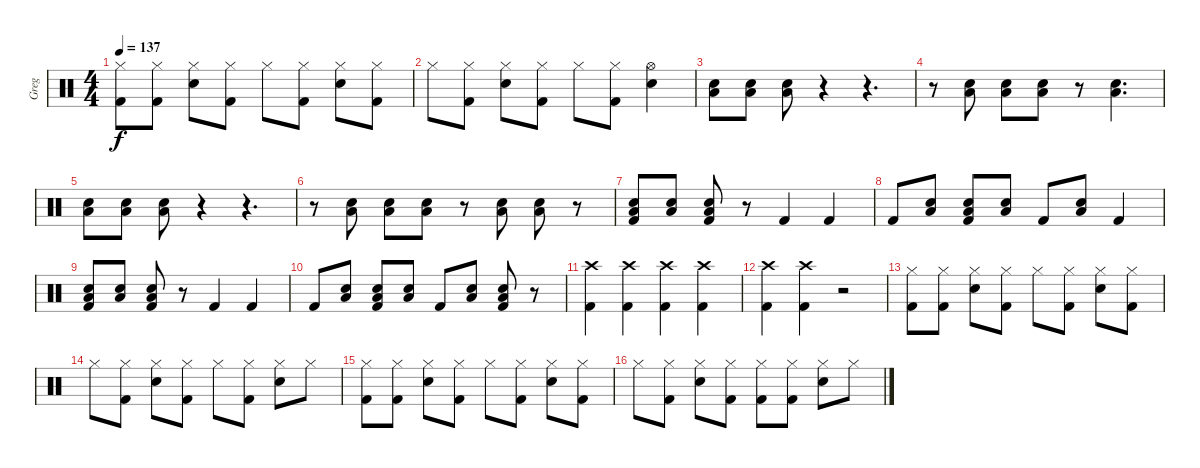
\track ("Greg" "Greg") {instrument percussion}
\staff {score}
\articulation defaults
\ts (4 4)
\tempo 137
\clef neutral
\ks c
("Hi-Hat (closed)" "Kick (hit) 2").8{dy f} ("Hi-Hat (closed)" "Kick (hit) 2").8 ("Hi-Hat (closed)" "Electric Snare (hit)").8 ("Hi-Hat (closed)" "Kick (hit) 2").8 "Hi-Hat (closed)".8 ("Hi-Hat (closed)" "Kick (hit) 2").8 ("Hi-Hat (closed)" "Electric Snare (hit)").8 ("Hi-Hat (closed)" "Kick (hit) 2").8 |
"Hi-Hat (closed)".8 ("Hi-Hat (closed)" "Kick (hit) 2").8 ("Hi-Hat (closed)" "Electric Snare (hit)").8 ("Hi-Hat (closed)" "Kick (hit) 2").8 "Hi-Hat (closed)".8 ("Hi-Hat (closed)" "Kick (hit) 2").8 ("Hi-Hat (open)" "Electric Snare (hit)").4 |
("Electric Snare (hit)" "Low Floor Tom (hit)").8 ("Electric Snare (hit)" "Low Floor Tom (hit)").8 ("Electric Snare (hit)" "Low Floor Tom (hit)").8 r.4 r.4{d} |
r.8 ("Electric Snare (hit)" "Low Floor Tom (hit)").8 ("Electric Snare (hit)" "Low Floor Tom (hit)").8 ("Electric Snare (hit)" "Low Floor Tom (hit)").8 r.8 ("Electric Snare (hit)" "Low Floor Tom (hit)").4{d} |
("Electric Snare (hit)" "Low Floor Tom (hit)").8 ("Electric Snare (hit)" "Low Floor Tom (hit)").8 ("Electric Snare (hit)" "Low Floor Tom (hit)").8 r.4 r.4{d} |
r.8 ("Electric Snare (hit)" "Low Floor Tom (hit)").8 ("Electric Snare (hit)" "Low Floor Tom (hit)").8 ("Electric Snare (hit)" "Low Floor Tom (hit)").8 r.8 ("Electric Snare (hit)" "Low Floor Tom (hit)").8 ("Electric Snare (hit)" "Low Floor Tom (hit)").8 r.8 |
("Electric Snare (hit)" "Low Floor Tom (hit)" "Kick (hit) 2").8 ("Electric Snare (hit)" "Low Floor Tom (hit)").8 ("Electric Snare (hit)" "Low Floor Tom (hit)" "Kick (hit) 2").8 r.8 "Kick (hit) 2".4 "Kick (hit) 2".4 |
"Kick (hit) 2".8 ("Electric Snare (hit)" "Low Floor Tom (hit)").8 ("Electric Snare (hit)" "Low Floor Tom (hit)" "Kick (hit) 2").8 ("Electric Snare (hit)" "Low Floor Tom (hit)").8 "Kick (hit) 2".8 ("Electric Snare (hit)" "Low Floor Tom (hit)").8 "Kick (hit) 2".4 |
("Electric Snare (hit)" "Low Floor Tom (hit)" "Kick (hit) 2").8 ("Electric Snare (hit)" "Low Floor Tom (hit)").8 ("Electric Snare (hit)" "Low Floor Tom (hit)" "Kick (hit) 2").8 r.8 "Kick (hit) 2".4 "Kick (hit) 2".4 |
"Kick (hit) 2".8 ("Electric Snare (hit)" "Low Floor Tom (hit)").8 ("Electric Snare (hit)" "Low Floor Tom (hit)" "Kick (hit) 2").8 ("Electric Snare (hit)" "Low Floor Tom (hit)").8 "Kick (hit) 2".8 ("Electric Snare (hit)" "Low Floor Tom (hit)").8 ("Electric Snare (hit)" "Low Floor Tom (hit)" "Kick (hit) 2").8 r.8 |
("Crash high (hit)" "Kick (hit) 2").4 ("Crash high (hit)" "Kick (hit) 2").4 ("Crash high (hit)" "Kick (hit) 2").4 ("Crash high (hit)" "Kick (hit) 2").4 |
("Crash high (hit)" "Kick (hit) 2").4 ("Crash high (hit)" "Kick (hit) 2").4 r.2 |
("Hi-Hat (closed)" "Kick (hit) 2").8 ("Hi-Hat (closed)" "Kick (hit) 2").8 ("Hi-Hat (closed)" "Electric Snare (hit)").8 ("Hi-Hat (closed)" "Kick (hit) 2").8 "Hi-Hat (closed)".8 ("Hi-Hat (closed)" "Kick (hit) 2").8 ("Hi-Hat (closed)" "Electric Snare (hit)").8 ("Hi-Hat (closed)" "Kick (hit) 2").8 |
"Hi-Hat (closed)".8 ("Hi-Hat (closed)" "Kick (hit) 2").8 ("Hi-Hat (closed)" "Electric Snare (hit)").8 ("Hi-Hat (closed)" "Kick (hit) 2").8 "Hi-Hat (closed)".8 ("Hi-Hat (closed)" "Kick (hit) 2").8 ("Hi-Hat (closed)" "Electric Snare (hit)").8 "Hi-Hat (closed)".8 |
("Hi-Hat (closed)" "Kick (hit) 2").8 ("Hi-Hat (closed)" "Kick (hit) 2").8 ("Hi-Hat (closed)" "Electric Snare (hit)").8 ("Hi-Hat (closed)" "Kick (hit) 2").8 "Hi-Hat (closed)".8 ("Hi-Hat (closed)" "Kick (hit) 2").8 ("Hi-Hat (closed)" "Electric Snare (hit)").8 ("Hi-Hat (closed)" "Kick (hit) 2").8 |
"Hi-Hat (closed)".8 ("Hi-Hat (closed)" "Kick (hit) 2").8 ("Hi-Hat (closed)" "Electric Snare (hit)").8 ("Hi-Hat (closed)" "Kick (hit) 2").8 ("Hi-Hat (closed)" "Kick (hit) 2").8 ("Hi-Hat (closed)" "Kick (hit) 2").8 ("Hi-Hat (closed)" "Electric Snare (hit)").8 "Hi-Hat (closed)".8
